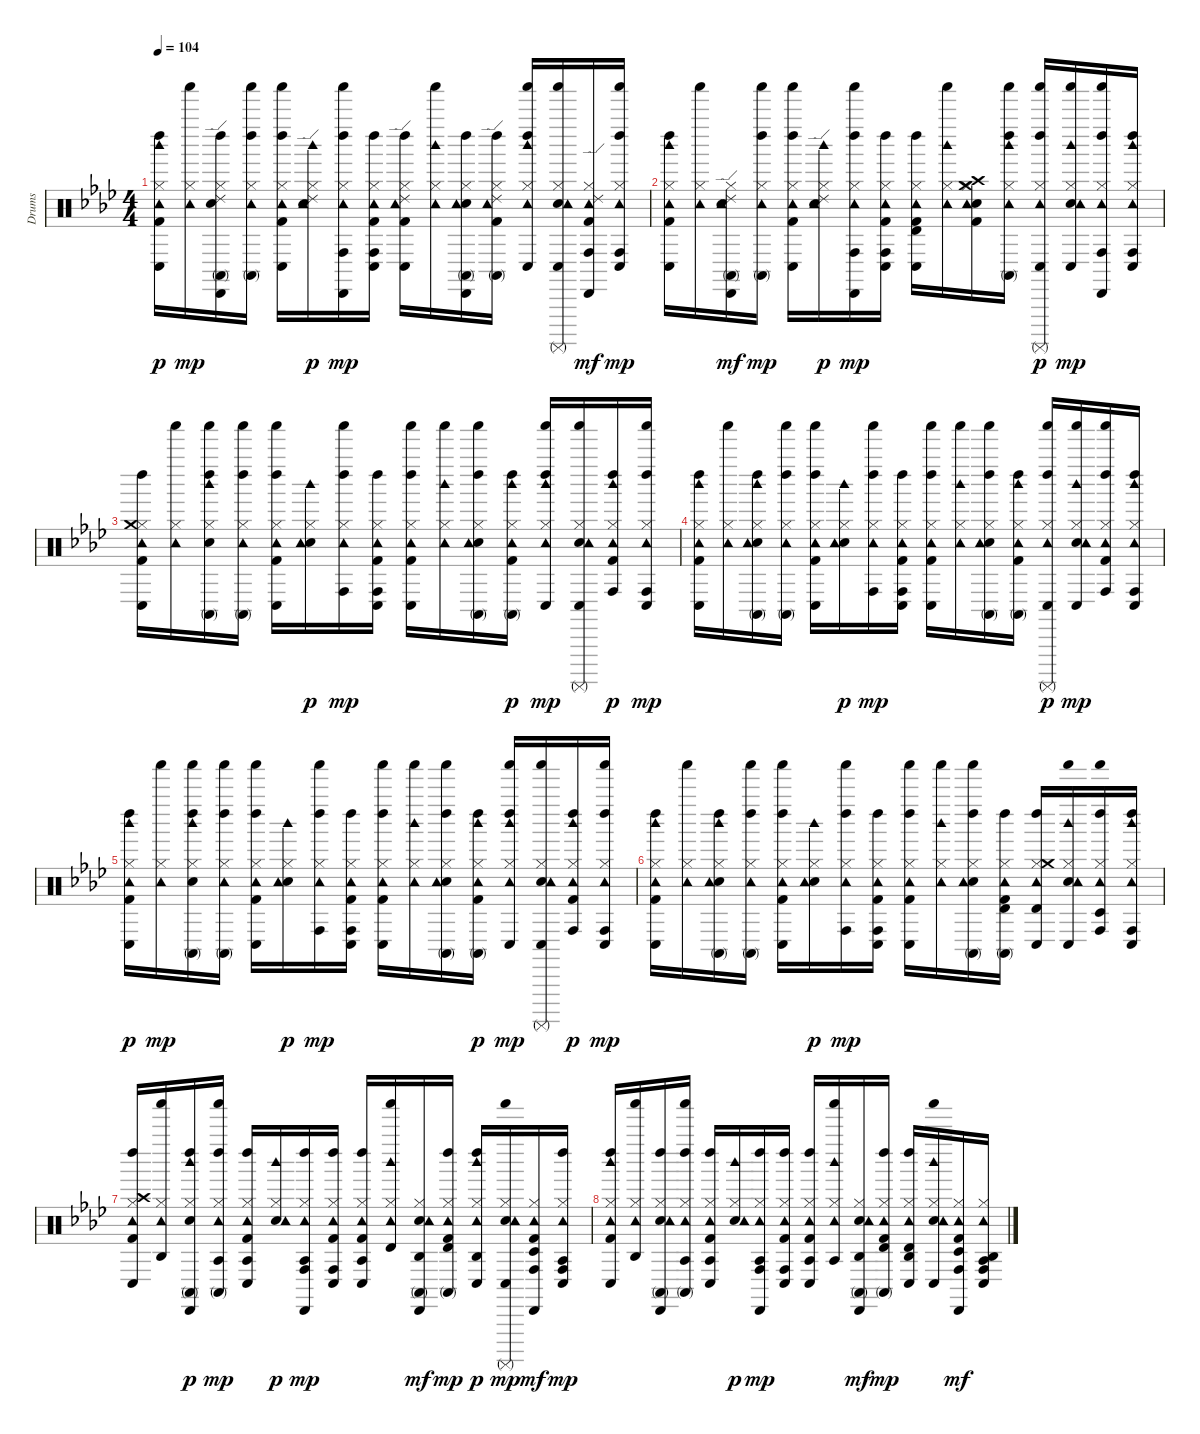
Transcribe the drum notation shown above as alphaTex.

\track ("Drums" "Drums") {instrument percussion}
\staff {score}
\articulation defaults
\ts (4 4)
\tempo 104
\clef neutral
\ks ab
("Kick (hit) 2" "Hi-Hat (closed)" "Tambourine (hit)" "Conga low (hit)" "Left Maraca (hit)" "Woodblock high (hit)").16{dy p} ("Hi-Hat (closed)" "Tambourine (hit)" "Shaker (hit)").16{dy mp} ("Hand Clap (hit)" "Hi-Hat (closed)" "Ride (edge) 2" "Conga high (mute)" "Cabasa (hit)" "Left Maraca (hit)").16 ("Hi-Hat (closed)" "Tambourine (hit)" "Conga high (mute)" "Left Maraca (hit)" "Shaker (hit)").16 ("Kick (hit) 2" "Hi-Hat (closed)" "Tambourine (hit)" "Conga low (hit)" "Left Maraca (hit)" "Shaker (hit)").16 ("Hand Clap (hit)" "Hi-Hat (closed)" "Tambourine (hit)" "Ride (edge) 2" "Woodblock high (hit)").16{dy p} ("Hi-Hat (closed)" "Tambourine (hit)" "Conga high (hit)" "Cabasa (hit)" "Left Maraca (hit)" "Shaker (hit)").16{dy mp} ("Kick (hit) 2" "Hi-Hat (closed)" "Tambourine (hit)" "Conga high (hit)" "Conga low (hit)" "Left Maraca (hit)").16 ("Kick (hit) 2" "Hi-Hat (closed)" "Tambourine (hit)" "Ride (edge) 2" "Conga low (hit)" "Left Maraca (hit)").16 ("Hi-Hat (closed)" "Tambourine (hit)" "Woodblock high (hit)" "Shaker (hit)").16 ("Hand Clap (hit)" "Hi-Hat (closed)" "Tambourine (hit)" "Conga high (mute)" "Cabasa (hit)" "Left Maraca (hit)").16 ("Kick (hit) 2" "Hi-Hat (closed)" "Tambourine (hit)" "Ride (edge) 2" "Conga high (mute)" "Left Maraca (hit)").16 ("Hi-Hat (closed)" "Tambourine (hit)" "Conga low (hit)" "Left Maraca (hit)" "Woodblock high (hit)" "Shaker (hit)").16 ("Hand Clap (hit)" "Hi-Hat (closed)" "Tambourine (hit)" "Conga low (hit)" "Shaker (hit)" "Surdo (mute)").16 ("Kick (hit) 2" "Hi-Hat (closed)" "Tambourine (hit)" "Ride (edge) 2" "Conga high (hit)" "Cabasa (hit)").16{dy mf} ("Hi-Hat (closed)" "Tambourine (hit)" "Conga high (hit)" "Conga low (hit)" "Left Maraca (hit)" "Shaker (hit)").16{dy mp} |
("Kick (hit) 2" "Hi-Hat (closed)" "Tambourine (hit)" "Conga low (hit)" "Left Maraca (hit)" "Woodblock high (hit)").16 ("Hi-Hat (closed)" "Tambourine (hit)" "Shaker (hit)").16 ("Hand Clap (hit)" "Hi-Hat (closed)" "Tambourine (hit)" "Ride (edge) 2" "Conga high (mute)" "Cabasa (hit)").16{dy mf} ("Hi-Hat (closed)" "Tambourine (hit)" "Conga high (mute)" "Left Maraca (hit)" "Shaker (hit)").16{dy mp} ("Kick (hit) 2" "Hi-Hat (closed)" "Tambourine (hit)" "Conga low (hit)" "Left Maraca (hit)" "Shaker (hit)").16 ("Hand Clap (hit)" "Hi-Hat (closed)" "Tambourine (hit)" "Ride (edge) 2" "Woodblock high (hit)").16{dy p} ("Hi-Hat (closed)" "Tambourine (hit)" "Conga high (hit)" "Cabasa (hit)" "Left Maraca (hit)" "Shaker (hit)").16{dy mp} ("Kick (hit) 2" "Hi-Hat (closed)" "Tambourine (hit)" "Conga high (hit)" "Conga low (hit)" "Left Maraca (hit)").16 ("Kick (hit) 2" "Hi-Hat (closed)" "Tambourine (hit)" "Conga low (hit)" "Timbale high (hit)" "Left Maraca (hit)").16 ("Hi-Hat (closed)" "Tambourine (hit)" "Woodblock high (hit)" "Shaker (hit)").16 ("Kick (hit) 2" "Hand Clap (hit)" "Hi-Hat (closed)" "Crash high (hit)" "Tambourine (hit)" "Crash medium (hit)").16 ("Hi-Hat (closed)" "Tambourine (hit)" "Conga high (mute)" "Left Maraca (hit)" "Woodblock high (hit)" "Shaker (hit)").16 ("Hi-Hat (closed)" "Tambourine (hit)" "Conga low (hit)" "Left Maraca (hit)" "Shaker (hit)" "Surdo (mute)").16{dy p} ("Hand Clap (hit)" "Hi-Hat (closed)" "Tambourine (hit)" "Conga low (hit)" "Woodblock high (hit)" "Shaker (hit)").16{dy mp} ("Hi-Hat (closed)" "Tambourine (hit)" "Conga high (hit)" "Cabasa (hit)" "Left Maraca (hit)" "Shaker (hit)").16 ("Hi-Hat (closed)" "Tambourine (hit)" "Conga high (hit)" "Conga low (hit)" "Left Maraca (hit)" "Woodblock high (hit)").16 |
("Kick (hit) 2" "Hi-Hat (closed)" "Tambourine (hit)" "Crash medium (hit)" "Conga low (hit)" "Left Maraca (hit)").16 ("Hi-Hat (closed)" "Tambourine (hit)" "Shaker (hit)").16 ("Hand Clap (hit)" "Hi-Hat (closed)" "Conga high (mute)" "Left Maraca (hit)" "Woodblock high (hit)" "Shaker (hit)").16 ("Hi-Hat (closed)" "Tambourine (hit)" "Conga high (mute)" "Left Maraca (hit)" "Shaker (hit)").16 ("Kick (hit) 2" "Hi-Hat (closed)" "Tambourine (hit)" "Conga low (hit)" "Left Maraca (hit)" "Shaker (hit)").16 ("Hand Clap (hit)" "Hi-Hat (closed)" "Tambourine (hit)" "Woodblock high (hit)").16{dy p} ("Hi-Hat (closed)" "Tambourine (hit)" "Conga high (hit)" "Left Maraca (hit)" "Shaker (hit)").16{dy mp} ("Kick (hit) 2" "Hi-Hat (closed)" "Tambourine (hit)" "Conga high (hit)" "Conga low (hit)" "Left Maraca (hit)").16 ("Kick (hit) 2" "Hi-Hat (closed)" "Tambourine (hit)" "Conga low (hit)" "Left Maraca (hit)" "Shaker (hit)").16 ("Hi-Hat (closed)" "Tambourine (hit)" "Woodblock high (hit)" "Shaker (hit)").16 ("Hand Clap (hit)" "Hi-Hat (closed)" "Tambourine (hit)" "Conga high (mute)" "Left Maraca (hit)" "Shaker (hit)").16 ("Kick (hit) 2" "Hi-Hat (closed)" "Tambourine (hit)" "Conga high (mute)" "Left Maraca (hit)" "Woodblock high (hit)").16{dy p} ("Hi-Hat (closed)" "Tambourine (hit)" "Conga low (hit)" "Left Maraca (hit)" "Woodblock high (hit)" "Shaker (hit)").16{dy mp} ("Hand Clap (hit)" "Hi-Hat (closed)" "Tambourine (hit)" "Conga low (hit)" "Shaker (hit)" "Surdo (mute)").16 ("Kick (hit) 2" "Hi-Hat (closed)" "Tambourine (hit)" "Conga high (hit)" "Left Maraca (hit)" "Woodblock high (hit)").16{dy p} ("Hi-Hat (closed)" "Tambourine (hit)" "Conga high (hit)" "Conga low (hit)" "Left Maraca (hit)" "Shaker (hit)").16{dy mp} |
("Kick (hit) 2" "Hi-Hat (closed)" "Tambourine (hit)" "Conga low (hit)" "Left Maraca (hit)" "Woodblock high (hit)").16 ("Hi-Hat (closed)" "Tambourine (hit)" "Shaker (hit)").16 ("Hand Clap (hit)" "Hi-Hat (closed)" "Tambourine (hit)" "Conga high (mute)" "Left Maraca (hit)" "Woodblock high (hit)").16 ("Hi-Hat (closed)" "Tambourine (hit)" "Conga high (mute)" "Left Maraca (hit)" "Shaker (hit)").16 ("Kick (hit) 2" "Hi-Hat (closed)" "Tambourine (hit)" "Conga low (hit)" "Left Maraca (hit)" "Shaker (hit)").16 ("Hand Clap (hit)" "Hi-Hat (closed)" "Tambourine (hit)" "Woodblock high (hit)").16{dy p} ("Hi-Hat (closed)" "Tambourine (hit)" "Conga high (hit)" "Left Maraca (hit)" "Shaker (hit)").16{dy mp} ("Kick (hit) 2" "Hi-Hat (closed)" "Tambourine (hit)" "Conga high (hit)" "Conga low (hit)" "Left Maraca (hit)").16 ("Kick (hit) 2" "Hi-Hat (closed)" "Tambourine (hit)" "Conga low (hit)" "Left Maraca (hit)" "Shaker (hit)").16 ("Hi-Hat (closed)" "Tambourine (hit)" "Woodblock high (hit)" "Shaker (hit)").16 ("Hand Clap (hit)" "Hi-Hat (closed)" "Tambourine (hit)" "Conga high (mute)" "Left Maraca (hit)" "Shaker (hit)").16 ("Kick (hit) 2" "Hi-Hat (closed)" "Tambourine (hit)" "Conga high (mute)" "Left Maraca (hit)" "Woodblock high (hit)").16 ("Hi-Hat (closed)" "Tambourine (hit)" "Conga low (hit)" "Left Maraca (hit)" "Shaker (hit)" "Surdo (mute)").16{dy p} ("Hand Clap (hit)" "Hi-Hat (closed)" "Tambourine (hit)" "Conga low (hit)" "Woodblock high (hit)" "Shaker (hit)").16{dy mp} ("Kick (hit) 2" "Hi-Hat (closed)" "Tambourine (hit)" "Conga high (hit)" "Left Maraca (hit)" "Shaker (hit)").16 ("Hi-Hat (closed)" "Tambourine (hit)" "Conga high (hit)" "Conga low (hit)" "Left Maraca (hit)" "Woodblock high (hit)").16 |
("Kick (hit) 2" "Hi-Hat (closed)" "Tambourine (hit)" "Conga low (hit)" "Left Maraca (hit)" "Woodblock high (hit)").16{dy p} ("Hi-Hat (closed)" "Tambourine (hit)" "Shaker (hit)").16{dy mp} ("Hand Clap (hit)" "Hi-Hat (closed)" "Conga high (mute)" "Left Maraca (hit)" "Woodblock high (hit)" "Shaker (hit)").16 ("Hi-Hat (closed)" "Tambourine (hit)" "Conga high (mute)" "Left Maraca (hit)" "Shaker (hit)").16 ("Kick (hit) 2" "Hi-Hat (closed)" "Tambourine (hit)" "Conga low (hit)" "Left Maraca (hit)" "Shaker (hit)").16 ("Hand Clap (hit)" "Hi-Hat (closed)" "Tambourine (hit)" "Woodblock high (hit)").16{dy p} ("Hi-Hat (closed)" "Tambourine (hit)" "Conga high (hit)" "Left Maraca (hit)" "Shaker (hit)").16{dy mp} ("Kick (hit) 2" "Hi-Hat (closed)" "Tambourine (hit)" "Conga high (hit)" "Conga low (hit)" "Left Maraca (hit)").16 ("Kick (hit) 2" "Hi-Hat (closed)" "Tambourine (hit)" "Conga low (hit)" "Left Maraca (hit)" "Shaker (hit)").16 ("Hi-Hat (closed)" "Tambourine (hit)" "Woodblock high (hit)" "Shaker (hit)").16 ("Hand Clap (hit)" "Hi-Hat (closed)" "Tambourine (hit)" "Conga high (mute)" "Left Maraca (hit)" "Shaker (hit)").16 ("Kick (hit) 2" "Hi-Hat (closed)" "Tambourine (hit)" "Conga high (mute)" "Left Maraca (hit)" "Woodblock high (hit)").16{dy p} ("Hi-Hat (closed)" "Tambourine (hit)" "Conga low (hit)" "Left Maraca (hit)" "Woodblock high (hit)" "Shaker (hit)").16{dy mp} ("Hand Clap (hit)" "Hi-Hat (closed)" "Tambourine (hit)" "Conga low (hit)" "Shaker (hit)" "Surdo (mute)").16 ("Kick (hit) 2" "Hi-Hat (closed)" "Tambourine (hit)" "Conga high (hit)" "Left Maraca (hit)" "Woodblock high (hit)").16{dy p} ("Hi-Hat (closed)" "Tambourine (hit)" "Conga high (hit)" "Conga low (hit)" "Left Maraca (hit)" "Shaker (hit)").16{dy mp} |
("Kick (hit) 2" "Hi-Hat (closed)" "Tambourine (hit)" "Conga low (hit)" "Left Maraca (hit)" "Woodblock high (hit)").16 ("Hi-Hat (closed)" "Tambourine (hit)" "Shaker (hit)").16 ("Hand Clap (hit)" "Hi-Hat (closed)" "Tambourine (hit)" "Conga high (mute)" "Left Maraca (hit)" "Woodblock high (hit)").16 ("Hi-Hat (closed)" "Tambourine (hit)" "Conga high (mute)" "Left Maraca (hit)" "Shaker (hit)").16 ("Kick (hit) 2" "Hi-Hat (closed)" "Tambourine (hit)" "Conga low (hit)" "Left Maraca (hit)" "Shaker (hit)").16 ("Hand Clap (hit)" "Hi-Hat (closed)" "Tambourine (hit)" "Woodblock high (hit)").16{dy p} ("Hi-Hat (closed)" "Tambourine (hit)" "Conga high (hit)" "Left Maraca (hit)" "Shaker (hit)").16{dy mp} ("Kick (hit) 2" "Hi-Hat (closed)" "Tambourine (hit)" "Conga high (hit)" "Conga low (hit)" "Left Maraca (hit)").16 ("Kick (hit) 2" "Hi-Hat (closed)" "Tambourine (hit)" "Conga low (hit)" "Left Maraca (hit)" "Shaker (hit)").16 ("Hi-Hat (closed)" "Tambourine (hit)" "Woodblock high (hit)" "Shaker (hit)").16 ("Hand Clap (hit)" "Hi-Hat (closed)" "Tambourine (hit)" "Conga high (mute)" "Left Maraca (hit)" "Shaker (hit)").16 ("Kick (hit) 2" "Hi-Hat (closed)" "Tambourine (hit)" "Conga high (mute)" "Timbale high (hit)" "Left Maraca (hit)").16 ("Hi-Hat (closed)" "Tambourine (hit)" "Crash medium (hit)" "Conga low (hit)" "Timbale high (hit)" "Left Maraca (hit)").16 ("Hand Clap (hit)" "Hi-Hat (closed)" "Tambourine (hit)" "Conga low (hit)" "Woodblock high (hit)" "Shaker (hit)").16 ("Hi-Hat (closed)" "Tambourine (hit)" "Conga high (hit)" "Timbale low (hit)" "Left Maraca (hit)" "Shaker (hit)").16 ("Hi-Hat (closed)" "Tambourine (hit)" "Conga high (hit)" "Conga low (hit)" "Left Maraca (hit)" "Woodblock high (hit)").16 |
("Kick (hit) 2" "Hi-Hat (closed)" "Crash high (hit)" "Tambourine (hit)" "Conga low (hit)" "Left Maraca (hit)").16 ("Hi-Hat (closed)" "Tambourine (hit)" "Agogo high (hit)" "Shaker (hit)").16 ("Hand Clap (hit)" "Hi-Hat (closed)" "Conga high (mute)" "Cabasa (hit)" "Left Maraca (hit)" "Woodblock high (hit)").16{dy p} ("Hi-Hat (closed)" "Tambourine (hit)" "Conga high (mute)" "Agogo tow (hit)" "Left Maraca (hit)" "Shaker (hit)").16{dy mp} ("Kick (hit) 2" "Hi-Hat (closed)" "Tambourine (hit)" "Conga low (hit)" "Agogo tow (hit)" "Left Maraca (hit)").16 ("Hand Clap (hit)" "Hi-Hat (closed)" "Tambourine (hit)" "Woodblock high (hit)").16{dy p} ("Hi-Hat (closed)" "Tambourine (hit)" "Conga high (hit)" "Agogo tow (hit)" "Cabasa (hit)" "Left Maraca (hit)").16{dy mp} ("Kick (hit) 2" "Hi-Hat (closed)" "Tambourine (hit)" "Conga high (hit)" "Conga low (hit)" "Left Maraca (hit)").16 ("Kick (hit) 2" "Hi-Hat (closed)" "Tambourine (hit)" "Conga low (hit)" "Agogo tow (hit)" "Left Maraca (hit)").16 ("Hi-Hat (closed)" "Tambourine (hit)" "Timbale high (hit)" "Woodblock high (hit)" "Shaker (hit)").16 ("Hand Clap (hit)" "Hi-Hat (closed)" "Tambourine (hit)" "Conga high (mute)" "Agogo high (hit)" "Cabasa (hit)").16{dy mf} ("Kick (hit) 2" "Hi-Hat (closed)" "Tambourine (hit)" "Conga high (mute)" "Timbale high (hit)" "Left Maraca (hit)").16{dy mp} ("Hi-Hat (closed)" "Tambourine (hit)" "Conga low (hit)" "Agogo high (hit)" "Left Maraca (hit)" "Woodblock high (hit)").16{dy p} ("Hand Clap (hit)" "Hi-Hat (closed)" "Tambourine (hit)" "Conga low (hit)" "Shaker (hit)" "Surdo (mute)").16{dy mp} ("Kick (hit) 2" "Hi-Hat (closed)" "Tambourine (hit)" "Conga high (hit)" "Timbale low (hit)" "Cabasa (hit)").16{dy mf} ("Hi-Hat (closed)" "Tambourine (hit)" "Conga high (hit)" "Conga low (hit)" "Agogo tow (hit)" "Left Maraca (hit)").16{dy mp} |
("Kick (hit) 2" "Hi-Hat (closed)" "Tambourine (hit)" "Conga low (hit)" "Left Maraca (hit)" "Woodblock high (hit)").16 ("Hi-Hat (closed)" "Tambourine (hit)" "Agogo high (hit)" "Shaker (hit)").16 ("Hand Clap (hit)" "Hi-Hat (closed)" "Tambourine (hit)" "Conga high (mute)" "Cabasa (hit)" "Left Maraca (hit)").16 ("Hi-Hat (closed)" "Tambourine (hit)" "Conga high (mute)" "Agogo tow (hit)" "Left Maraca (hit)" "Shaker (hit)").16 ("Kick (hit) 2" "Hi-Hat (closed)" "Tambourine (hit)" "Conga low (hit)" "Agogo tow (hit)" "Left Maraca (hit)").16 ("Hand Clap (hit)" "Hi-Hat (closed)" "Tambourine (hit)" "Woodblock high (hit)").16{dy p} ("Hi-Hat (closed)" "Tambourine (hit)" "Conga high (hit)" "Agogo tow (hit)" "Cabasa (hit)" "Left Maraca (hit)").16{dy mp} ("Kick (hit) 2" "Hi-Hat (closed)" "Tambourine (hit)" "Conga high (hit)" "Conga low (hit)" "Left Maraca (hit)").16 ("Kick (hit) 2" "Hi-Hat (closed)" "Tambourine (hit)" "Conga low (hit)" "Agogo tow (hit)" "Left Maraca (hit)").16 ("Hi-Hat (closed)" "Tambourine (hit)" "Agogo tow (hit)" "Woodblock high (hit)" "Shaker (hit)").16 ("Hand Clap (hit)" "Hi-Hat (closed)" "Tambourine (hit)" "Conga high (mute)" "Agogo high (hit)" "Cabasa (hit)").16{dy mf} ("Kick (hit) 2" "Hi-Hat (closed)" "Tambourine (hit)" "Conga high (mute)" "Timbale high (hit)" "Left Maraca (hit)").16{dy mp} ("Hi-Hat (closed)" "Tambourine (hit)" "Conga low (hit)" "Timbale high (hit)" "Agogo high (hit)" "Left Maraca (hit)").16 ("Hand Clap (hit)" "Hi-Hat (closed)" "Tambourine (hit)" "Conga low (hit)" "Woodblock high (hit)" "Shaker (hit)").16 ("Kick (hit) 2" "Hi-Hat (closed)" "Tambourine (hit)" "Conga high (hit)" "Timbale low (hit)" "Cabasa (hit)").16{dy mf} ("Hi-Hat (closed)" "Tambourine (hit)" "Conga high (hit)" "Conga low (hit)" "Agogo high (hit)" "Agogo tow (hit)").16
